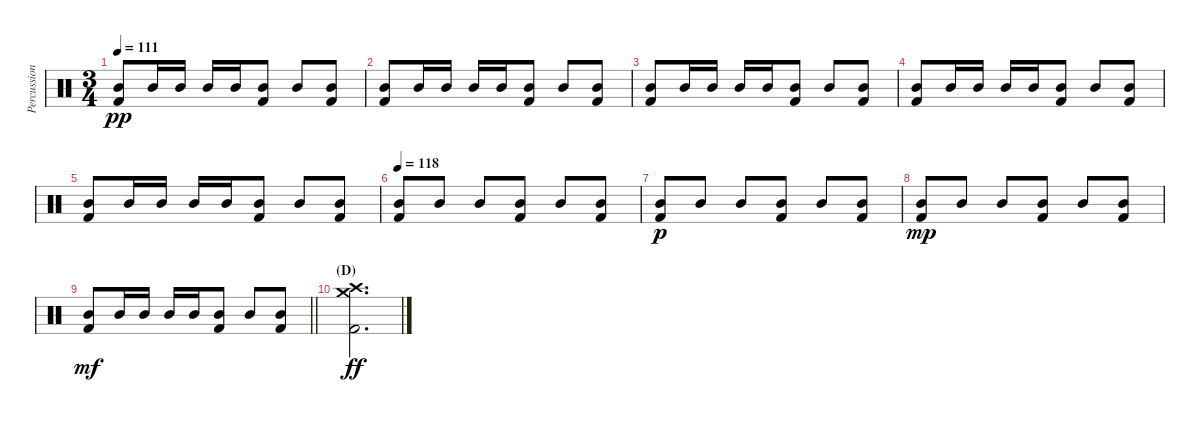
\track ("Percussion" "Percussion") {instrument percussion}
\staff {score}
\articulation defaults
\ts (3 4)
\tempo 111
\clef neutral
\ks c
("Mid Tom (hit)" "Kick (hit) 2").8{dy pp volume 13} "Mid Tom (hit)".16 "Mid Tom (hit)".16 "Mid Tom (hit)".16 "Mid Tom (hit)".16 ("Mid Tom (hit)" "Kick (hit) 2").8 "Mid Tom (hit)".8 ("Mid Tom (hit)" "Kick (hit) 2").8 |
("Mid Tom (hit)" "Kick (hit) 2").8 "Mid Tom (hit)".16 "Mid Tom (hit)".16 "Mid Tom (hit)".16 "Mid Tom (hit)".16 ("Mid Tom (hit)" "Kick (hit) 2").8 "Mid Tom (hit)".8 ("Mid Tom (hit)" "Kick (hit) 2").8 |
("Mid Tom (hit)" "Kick (hit) 2").8 "Mid Tom (hit)".16 "Mid Tom (hit)".16 "Mid Tom (hit)".16 "Mid Tom (hit)".16 ("Mid Tom (hit)" "Kick (hit) 2").8 "Mid Tom (hit)".8 ("Mid Tom (hit)" "Kick (hit) 2").8 |
("Mid Tom (hit)" "Kick (hit) 2").8 "Mid Tom (hit)".16 "Mid Tom (hit)".16 "Mid Tom (hit)".16 "Mid Tom (hit)".16 ("Mid Tom (hit)" "Kick (hit) 2").8 "Mid Tom (hit)".8 ("Mid Tom (hit)" "Kick (hit) 2").8 |
("Mid Tom (hit)" "Kick (hit) 2").8 "Mid Tom (hit)".16 "Mid Tom (hit)".16 "Mid Tom (hit)".16 "Mid Tom (hit)".16 ("Mid Tom (hit)" "Kick (hit) 2").8 "Mid Tom (hit)".8 ("Mid Tom (hit)" "Kick (hit) 2").8 |
\tempo 118
("Mid Tom (hit)" "Kick (hit) 2").8 "Mid Tom (hit)".8 "Mid Tom (hit)".8 ("Mid Tom (hit)" "Kick (hit) 2").8 "Mid Tom (hit)".8 ("Mid Tom (hit)" "Kick (hit) 2").8 |
("Mid Tom (hit)" "Kick (hit) 2").8{dy p} "Mid Tom (hit)".8 "Mid Tom (hit)".8 ("Mid Tom (hit)" "Kick (hit) 2").8 "Mid Tom (hit)".8 ("Mid Tom (hit)" "Kick (hit) 2").8 |
("Mid Tom (hit)" "Kick (hit) 2").8{dy mp} "Mid Tom (hit)".8 "Mid Tom (hit)".8 ("Mid Tom (hit)" "Kick (hit) 2").8 "Mid Tom (hit)".8 ("Mid Tom (hit)" "Kick (hit) 2").8 |
\barLineRight lightlight
("Mid Tom (hit)" "Kick (hit) 2").8{dy mf} "Mid Tom (hit)".16 "Mid Tom (hit)".16 "Mid Tom (hit)".16 "Mid Tom (hit)".16 ("Mid Tom (hit)" "Kick (hit) 2").8 "Mid Tom (hit)".8 ("Mid Tom (hit)" "Kick (hit) 2").8 |
\section ("" "(D)")
("Crash high (hit)" "Crash medium (hit)" "Kick (hit) 2").2{d dy ff}
